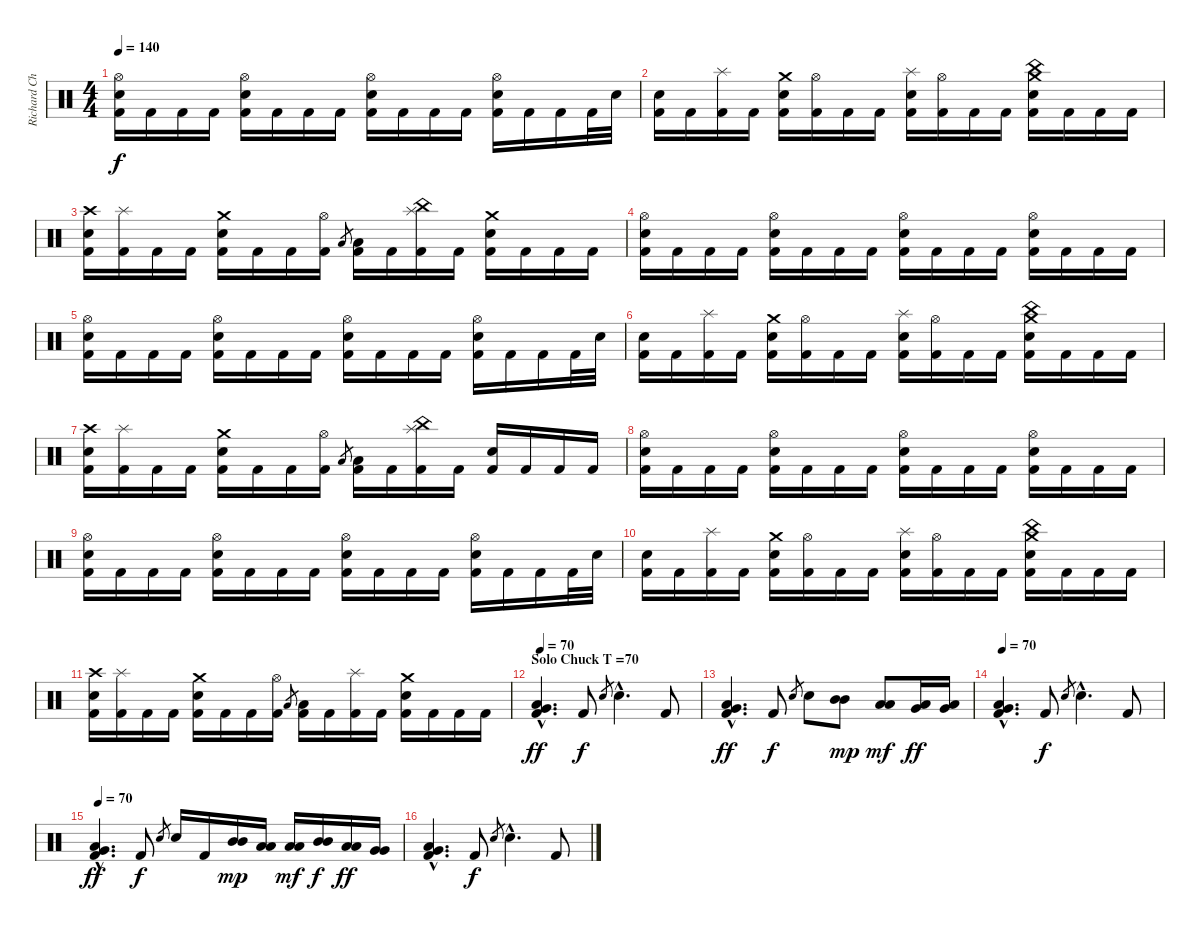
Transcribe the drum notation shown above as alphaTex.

\track ("Richard Christy" "Richard Ch") {instrument percussion}
\staff {score}
\articulation defaults
\ts (4 4)
\tempo 140
\clef neutral
\ks c
("Hi-Hat (open)" "Electric Snare (hit)" "Kick (hit) 2").16{dy f} "Kick (hit) 2".16 "Kick (hit) 2".16 "Kick (hit) 2".16 ("Hi-Hat (open)" "Electric Snare (hit)" "Kick (hit) 2").16 "Kick (hit) 2".16 "Kick (hit) 2".16 "Kick (hit) 2".16 ("Hi-Hat (open)" "Electric Snare (hit)" "Kick (hit) 2").16 "Kick (hit) 2".16 "Kick (hit) 2".16 "Kick (hit) 2".16 ("Hi-Hat (open)" "Electric Snare (hit)" "Kick (hit) 2").16 "Kick (hit) 2".16 "Kick (hit) 2".16 "Kick (hit) 2".32 "Electric Snare (hit)".32 |
("Electric Snare (hit)" "Kick (hit) 2").16 "Kick (hit) 2".16 ("Splash (hit)" "Kick (hit) 2").16 "Kick (hit) 2".16 ("Crash medium (hit)" "Electric Snare (hit)" "Kick (hit) 2").16 ("Hi-Hat (open)" "Kick (hit) 2").16 "Kick (hit) 2".16 "Kick (hit) 2".16 ("Splash (hit)" "Electric Snare (hit)" "Kick (hit) 2").16 ("Hi-Hat (open)" "Kick (hit) 2").16 "Kick (hit) 2".16 "Kick (hit) 2".16 ("Crash medium (hit)" "China (hit)" "Electric Snare (hit)" "Kick (hit) 2").16 "Kick (hit) 2".16 "Kick (hit) 2".16 "Kick (hit) 2".16 |
("Crash high (hit)" "Electric Snare (hit)" "Kick (hit) 2").16 ("Splash (hit)" "Kick (hit) 2").16 "Kick (hit) 2".16 "Kick (hit) 2".16 ("Crash medium (hit)" "Electric Snare (hit)" "Kick (hit) 2").16 "Kick (hit) 2".16 "Kick (hit) 2".16 ("Hi-Hat (open)" "Kick (hit) 2").16 "Low Tom (hit)".8{gr} ("Low Tom (hit)" "Kick (hit) 2").16 "Kick (hit) 2".16 ("Splash (hit)" "China (hit)" "Kick (hit) 2").16 "Kick (hit) 2".16 ("Crash medium (hit)" "Electric Snare (hit)" "Kick (hit) 2").16 "Kick (hit) 2".16 "Kick (hit) 2".16 "Kick (hit) 2".16 |
("Hi-Hat (open)" "Electric Snare (hit)" "Kick (hit) 2").16 "Kick (hit) 2".16 "Kick (hit) 2".16 "Kick (hit) 2".16 ("Hi-Hat (open)" "Electric Snare (hit)" "Kick (hit) 2").16 "Kick (hit) 2".16 "Kick (hit) 2".16 "Kick (hit) 2".16 ("Hi-Hat (open)" "Electric Snare (hit)" "Kick (hit) 2").16 "Kick (hit) 2".16 "Kick (hit) 2".16 "Kick (hit) 2".16 ("Hi-Hat (open)" "Electric Snare (hit)" "Kick (hit) 2").16 "Kick (hit) 2".16 "Kick (hit) 2".16 "Kick (hit) 2".16 |
("Hi-Hat (open)" "Electric Snare (hit)" "Kick (hit) 2").16 "Kick (hit) 2".16 "Kick (hit) 2".16 "Kick (hit) 2".16 ("Hi-Hat (open)" "Electric Snare (hit)" "Kick (hit) 2").16 "Kick (hit) 2".16 "Kick (hit) 2".16 "Kick (hit) 2".16 ("Hi-Hat (open)" "Electric Snare (hit)" "Kick (hit) 2").16 "Kick (hit) 2".16 "Kick (hit) 2".16 "Kick (hit) 2".16 ("Hi-Hat (open)" "Electric Snare (hit)" "Kick (hit) 2").16 "Kick (hit) 2".16 "Kick (hit) 2".16 "Kick (hit) 2".32 "Electric Snare (hit)".32 |
("Electric Snare (hit)" "Kick (hit) 2").16 "Kick (hit) 2".16 ("Splash (hit)" "Kick (hit) 2").16 "Kick (hit) 2".16 ("Crash medium (hit)" "Electric Snare (hit)" "Kick (hit) 2").16 ("Hi-Hat (open)" "Kick (hit) 2").16 "Kick (hit) 2".16 "Kick (hit) 2".16 ("Splash (hit)" "Electric Snare (hit)" "Kick (hit) 2").16 ("Hi-Hat (open)" "Kick (hit) 2").16 "Kick (hit) 2".16 "Kick (hit) 2".16 ("Crash medium (hit)" "China (hit)" "Electric Snare (hit)" "Kick (hit) 2").16 "Kick (hit) 2".16 "Kick (hit) 2".16 "Kick (hit) 2".16 |
("Crash high (hit)" "Electric Snare (hit)" "Kick (hit) 2").16 ("Splash (hit)" "Kick (hit) 2").16 "Kick (hit) 2".16 "Kick (hit) 2".16 ("Crash medium (hit)" "Electric Snare (hit)" "Kick (hit) 2").16 "Kick (hit) 2".16 "Kick (hit) 2".16 ("Hi-Hat (open)" "Kick (hit) 2").16 "Low Tom (hit)".8{gr} ("Low Tom (hit)" "Kick (hit) 2").16 "Kick (hit) 2".16 ("Splash (hit)" "China (hit)" "Kick (hit) 2").16 "Kick (hit) 2".16 ("Electric Snare (hit)" "Kick (hit) 2").16 "Kick (hit) 2".16 "Kick (hit) 2".16 "Kick (hit) 2".16 |
("Hi-Hat (open)" "Electric Snare (hit)" "Kick (hit) 2").16 "Kick (hit) 2".16 "Kick (hit) 2".16 "Kick (hit) 2".16 ("Hi-Hat (open)" "Electric Snare (hit)" "Kick (hit) 2").16 "Kick (hit) 2".16 "Kick (hit) 2".16 "Kick (hit) 2".16 ("Hi-Hat (open)" "Electric Snare (hit)" "Kick (hit) 2").16 "Kick (hit) 2".16 "Kick (hit) 2".16 "Kick (hit) 2".16 ("Hi-Hat (open)" "Electric Snare (hit)" "Kick (hit) 2").16 "Kick (hit) 2".16 "Kick (hit) 2".16 "Kick (hit) 2".16 |
("Hi-Hat (open)" "Electric Snare (hit)" "Kick (hit) 2").16 "Kick (hit) 2".16 "Kick (hit) 2".16 "Kick (hit) 2".16 ("Hi-Hat (open)" "Electric Snare (hit)" "Kick (hit) 2").16 "Kick (hit) 2".16 "Kick (hit) 2".16 "Kick (hit) 2".16 ("Hi-Hat (open)" "Electric Snare (hit)" "Kick (hit) 2").16 "Kick (hit) 2".16 "Kick (hit) 2".16 "Kick (hit) 2".16 ("Hi-Hat (open)" "Electric Snare (hit)" "Kick (hit) 2").16 "Kick (hit) 2".16 "Kick (hit) 2".16 "Kick (hit) 2".32 "Electric Snare (hit)".32 |
("Electric Snare (hit)" "Kick (hit) 2").16 "Kick (hit) 2".16 ("Splash (hit)" "Kick (hit) 2").16 "Kick (hit) 2".16 ("Crash medium (hit)" "Electric Snare (hit)" "Kick (hit) 2").16 ("Hi-Hat (open)" "Kick (hit) 2").16 "Kick (hit) 2".16 "Kick (hit) 2".16 ("Splash (hit)" "Electric Snare (hit)" "Kick (hit) 2").16 ("Hi-Hat (open)" "Kick (hit) 2").16 "Kick (hit) 2".16 "Kick (hit) 2".16 ("Crash medium (hit)" "China (hit)" "Electric Snare (hit)" "Kick (hit) 2").16 "Kick (hit) 2".16 "Kick (hit) 2".16 "Kick (hit) 2".16 |
("Crash high (hit)" "Electric Snare (hit)" "Kick (hit) 2").16 ("Splash (hit)" "Kick (hit) 2").16 "Kick (hit) 2".16 "Kick (hit) 2".16 ("Crash medium (hit)" "Electric Snare (hit)" "Kick (hit) 2").16 "Kick (hit) 2".16 "Kick (hit) 2".16 ("Hi-Hat (open)" "Kick (hit) 2").16 "Low Tom (hit)".8{gr} ("Low Tom (hit)" "Kick (hit) 2").16 "Kick (hit) 2".16 ("Splash (hit)" "Kick (hit) 2").16 "Kick (hit) 2".16 ("Crash medium (hit)" "Electric Snare (hit)" "Kick (hit) 2").16 "Kick (hit) 2".16 "Kick (hit) 2".16 "Kick (hit) 2".16 |
\section ("" "Solo Chuck T =70")
\tempo 70
("Low Floor Tom (hit)"{hac} "Very Low Tom (hit)"{hac} "Kick (hit) 2"{hac}).4{d dy ff} "Kick (hit) 2".8{dy f} "Electric Snare (hit)".8{gr} "Electric Snare (hit)"{hac}.4{d} "Kick (hit) 2".8 |
("Low Floor Tom (hit)"{hac} "Very Low Tom (hit)"{hac} "Kick (hit) 2"{hac}).4{d dy ff} "Kick (hit) 2".8{dy f} "Electric Snare (hit)".8{gr} "Electric Snare (hit)".8 ("Mid Tom (hit)" "Mid Tom (hit)").8{dy mp} ("Low Tom (hit)" "Low Tom (hit)").8{dy mf} ("Low Tom (hit)" "Very Low Tom (hit)").16{dy ff} ("Low Tom (hit)" "Very Low Tom (hit)").16 |
\tempo 70
("Low Floor Tom (hit)"{hac} "Very Low Tom (hit)"{hac} "Kick (hit) 2"{hac}).4{d} "Kick (hit) 2".8{dy f} "Electric Snare (hit)".8{gr} "Electric Snare (hit)"{hac}.4{d} "Kick (hit) 2".8 |
\tempo 70
("Low Floor Tom (hit)"{hac} "Very Low Tom (hit)"{hac} "Kick (hit) 2"{hac}).4{d dy ff} "Kick (hit) 2".8{dy f} "Electric Snare (hit)".8{gr} "Electric Snare (hit)".16 "Kick (hit) 2".16 ("Mid Tom (hit)" "Mid Tom (hit)").16{dy mp} ("Low Tom (hit)" "Low Tom (hit)").16 ("Low Tom (hit)" "Low Tom (hit)").16{dy mf} ("Mid Tom (hit)" "Mid Tom (hit)").16{dy f} ("Low Tom (hit)" "Low Tom (hit)").16{dy ff} ("Very Low Tom (hit)" "Very Low Tom (hit)").16 |
("Low Floor Tom (hit)"{hac} "Very Low Tom (hit)"{hac} "Kick (hit) 2"{hac}).4{d} "Kick (hit) 2".8{dy f} "Electric Snare (hit)".8{gr} "Electric Snare (hit)"{hac}.4{d} "Kick (hit) 2".8
